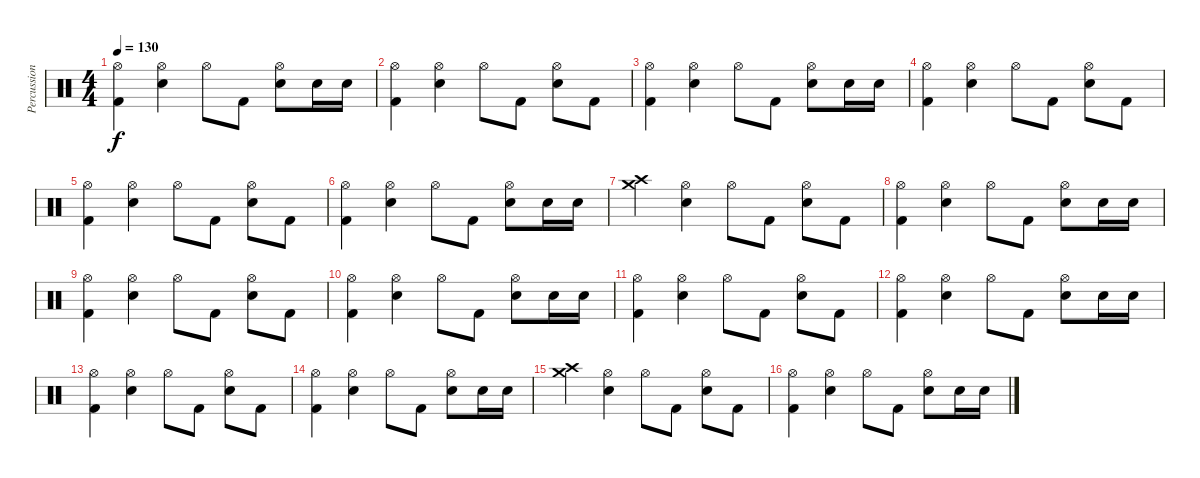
\track ("Percussion" "Percussion") {instrument percussion}
\staff {score}
\articulation defaults
\ts (4 4)
\tempo 130
\clef neutral
\ks c
("Hi-Hat (open)" "Kick (hit) 2").4{dy f} ("Hi-Hat (open)" "Electric Snare (hit)").4 "Hi-Hat (open)".8 "Kick (hit) 2".8 ("Hi-Hat (open)" "Electric Snare (hit)").8 "Electric Snare (hit)".16 "Electric Snare (hit)".16 |
("Hi-Hat (open)" "Kick (hit) 2").4 ("Hi-Hat (open)" "Electric Snare (hit)").4 "Hi-Hat (open)".8 "Kick (hit) 2".8 ("Hi-Hat (open)" "Electric Snare (hit)").8 "Kick (hit) 2".8 |
("Hi-Hat (open)" "Kick (hit) 2").4 ("Hi-Hat (open)" "Electric Snare (hit)").4 "Hi-Hat (open)".8 "Kick (hit) 2".8 ("Hi-Hat (open)" "Electric Snare (hit)").8 "Electric Snare (hit)".16 "Electric Snare (hit)".16 |
("Hi-Hat (open)" "Kick (hit) 2").4 ("Hi-Hat (open)" "Electric Snare (hit)").4 "Hi-Hat (open)".8 "Kick (hit) 2".8 ("Hi-Hat (open)" "Electric Snare (hit)").8 "Kick (hit) 2".8 |
("Hi-Hat (open)" "Kick (hit) 2").4 ("Hi-Hat (open)" "Electric Snare (hit)").4 "Hi-Hat (open)".8 "Kick (hit) 2".8 ("Hi-Hat (open)" "Electric Snare (hit)").8 "Kick (hit) 2".8 |
("Hi-Hat (open)" "Kick (hit) 2").4 ("Hi-Hat (open)" "Electric Snare (hit)").4 "Hi-Hat (open)".8 "Kick (hit) 2".8 ("Hi-Hat (open)" "Electric Snare (hit)").8 "Electric Snare (hit)".16 "Electric Snare (hit)".16 |
("Crash medium (hit)" "Crash high (hit)").4 ("Hi-Hat (open)" "Electric Snare (hit)").4 "Hi-Hat (open)".8 "Kick (hit) 2".8 ("Hi-Hat (open)" "Electric Snare (hit)").8 "Kick (hit) 2".8 |
("Hi-Hat (open)" "Kick (hit) 2").4 ("Hi-Hat (open)" "Electric Snare (hit)").4 "Hi-Hat (open)".8 "Kick (hit) 2".8 ("Hi-Hat (open)" "Electric Snare (hit)").8 "Electric Snare (hit)".16 "Electric Snare (hit)".16 |
("Hi-Hat (open)" "Kick (hit) 2").4 ("Hi-Hat (open)" "Electric Snare (hit)").4 "Hi-Hat (open)".8 "Kick (hit) 2".8 ("Hi-Hat (open)" "Electric Snare (hit)").8 "Kick (hit) 2".8 |
("Hi-Hat (open)" "Kick (hit) 2").4 ("Hi-Hat (open)" "Electric Snare (hit)").4 "Hi-Hat (open)".8 "Kick (hit) 2".8 ("Hi-Hat (open)" "Electric Snare (hit)").8 "Electric Snare (hit)".16 "Electric Snare (hit)".16 |
("Hi-Hat (open)" "Kick (hit) 2").4 ("Hi-Hat (open)" "Electric Snare (hit)").4 "Hi-Hat (open)".8 "Kick (hit) 2".8 ("Hi-Hat (open)" "Electric Snare (hit)").8 "Kick (hit) 2".8 |
("Hi-Hat (open)" "Kick (hit) 2").4 ("Hi-Hat (open)" "Electric Snare (hit)").4 "Hi-Hat (open)".8 "Kick (hit) 2".8 ("Hi-Hat (open)" "Electric Snare (hit)").8 "Electric Snare (hit)".16 "Electric Snare (hit)".16 |
("Hi-Hat (open)" "Kick (hit) 2").4 ("Hi-Hat (open)" "Electric Snare (hit)").4 "Hi-Hat (open)".8 "Kick (hit) 2".8 ("Hi-Hat (open)" "Electric Snare (hit)").8 "Kick (hit) 2".8 |
("Hi-Hat (open)" "Kick (hit) 2").4 ("Hi-Hat (open)" "Electric Snare (hit)").4 "Hi-Hat (open)".8 "Kick (hit) 2".8 ("Hi-Hat (open)" "Electric Snare (hit)").8 "Electric Snare (hit)".16 "Electric Snare (hit)".16 |
("Crash medium (hit)" "Crash high (hit)").4 ("Hi-Hat (open)" "Electric Snare (hit)").4 "Hi-Hat (open)".8 "Kick (hit) 2".8 ("Hi-Hat (open)" "Electric Snare (hit)").8 "Kick (hit) 2".8 |
("Hi-Hat (open)" "Kick (hit) 2").4 ("Hi-Hat (open)" "Electric Snare (hit)").4 "Hi-Hat (open)".8 "Kick (hit) 2".8 ("Hi-Hat (open)" "Electric Snare (hit)").8 "Electric Snare (hit)".16 "Electric Snare (hit)".16
